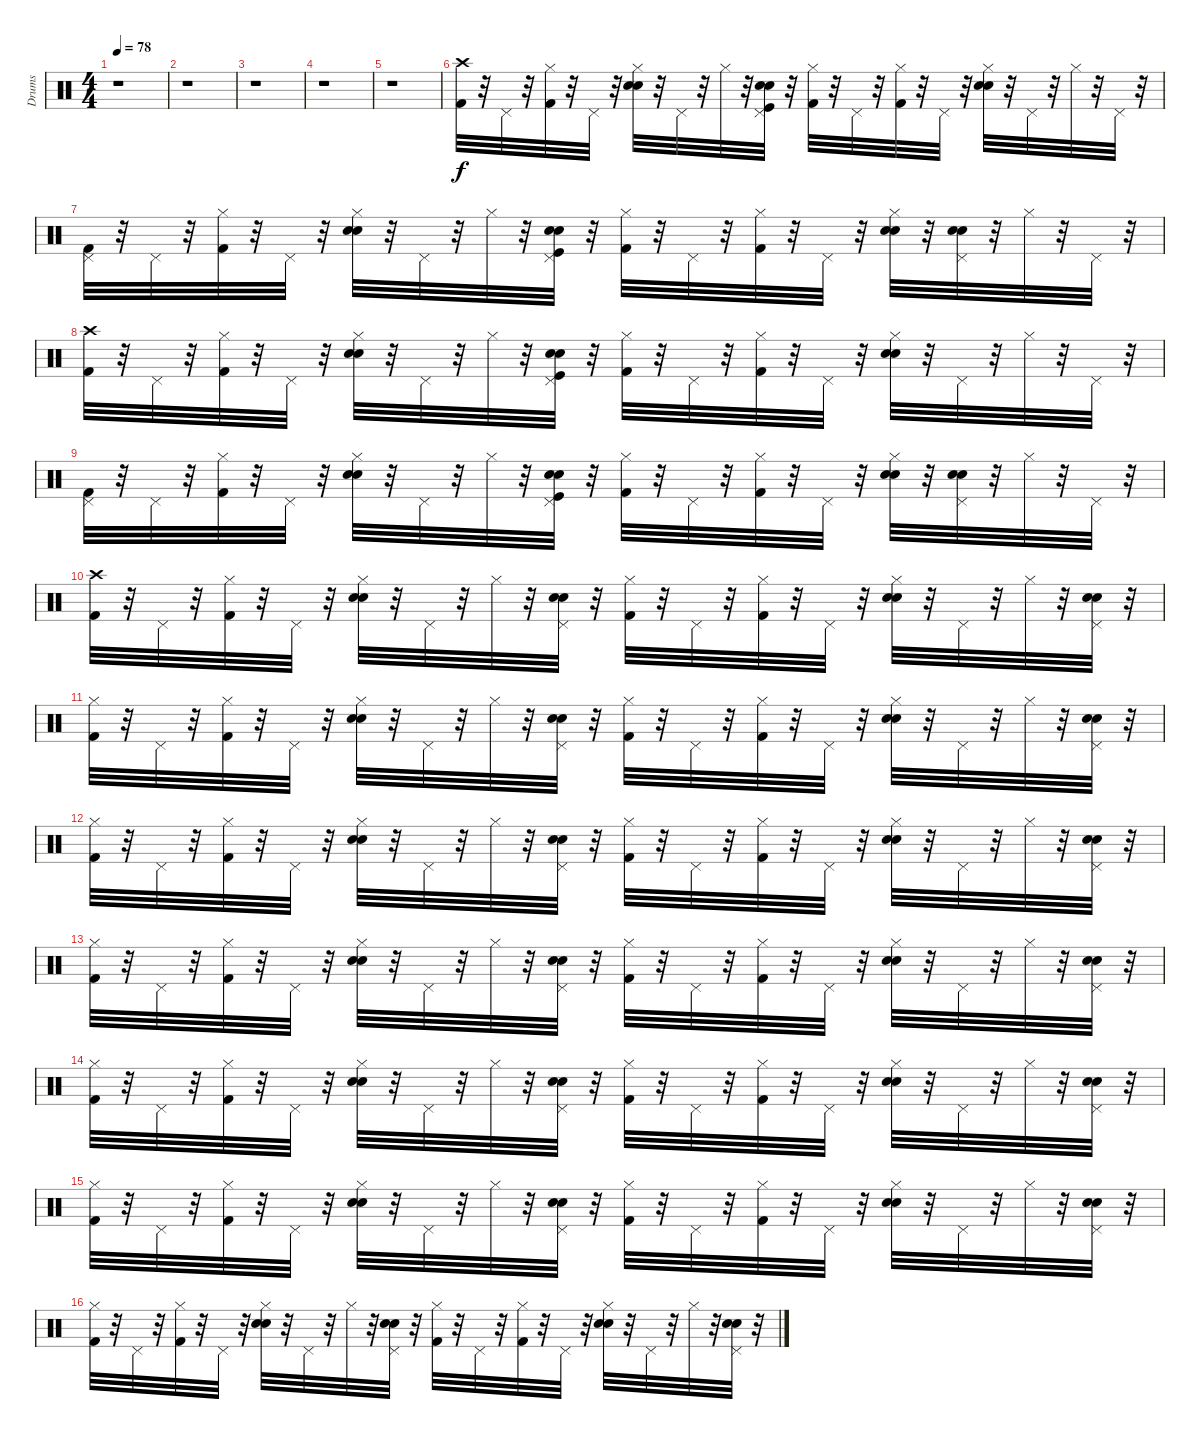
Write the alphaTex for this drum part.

\track ("Drums" "Drums") {instrument percussion}
\staff {score}
\articulation defaults
\ts (4 4)
\tempo 78
\clef neutral
\ks c
r.1{dy f} |
r.1 |
r.1 |
r.1 |
r.1 |
("Crash high (hit)" "Kick (hit) 2").32 r.32 "Pedal Hi-Hat (hit)".32 r.32 ("Hi-Hat (closed)" "Kick (hit) 2").32 r.32 "Pedal Hi-Hat (hit)".32 r.32 ("Hi-Hat (closed)" "Hand Clap (hit)" "Snare (hit) 2").32 r.32 "Pedal Hi-Hat (hit)".32 r.32 "Hi-Hat (closed)".32 r.32 ("Hand Clap (hit)" "Snare (hit) 2" "Pedal Hi-Hat (hit)" "Kick (hit)").32 r.32 ("Hi-Hat (closed)" "Kick (hit) 2").32 r.32 "Pedal Hi-Hat (hit)".32 r.32 ("Hi-Hat (closed)" "Kick (hit) 2").32 r.32 "Pedal Hi-Hat (hit)".32 r.32 ("Hi-Hat (closed)" "Hand Clap (hit)" "Snare (hit) 2").32 r.32 "Pedal Hi-Hat (hit)".32 r.32 "Hi-Hat (closed)".32 r.32 "Pedal Hi-Hat (hit)".32 r.32 |
("Pedal Hi-Hat (hit)" "Kick (hit) 2").32 r.32 "Pedal Hi-Hat (hit)".32 r.32 ("Hi-Hat (closed)" "Kick (hit) 2").32 r.32 "Pedal Hi-Hat (hit)".32 r.32 ("Hi-Hat (closed)" "Hand Clap (hit)" "Snare (hit) 2").32 r.32 "Pedal Hi-Hat (hit)".32 r.32 "Hi-Hat (closed)".32 r.32 ("Hand Clap (hit)" "Snare (hit) 2" "Pedal Hi-Hat (hit)" "Kick (hit)").32 r.32 ("Hi-Hat (closed)" "Kick (hit) 2").32 r.32 "Pedal Hi-Hat (hit)".32 r.32 ("Hi-Hat (closed)" "Kick (hit) 2").32 r.32 "Pedal Hi-Hat (hit)".32 r.32 ("Hi-Hat (closed)" "Hand Clap (hit)" "Snare (hit) 2").32 r.32 ("Hand Clap (hit)" "Snare (hit) 2" "Pedal Hi-Hat (hit)").32 r.32 "Hi-Hat (closed)".32 r.32 "Pedal Hi-Hat (hit)".32 r.32 |
("Crash high (hit)" "Kick (hit) 2").32 r.32 "Pedal Hi-Hat (hit)".32 r.32 ("Hi-Hat (closed)" "Kick (hit) 2").32 r.32 "Pedal Hi-Hat (hit)".32 r.32 ("Hi-Hat (closed)" "Hand Clap (hit)" "Snare (hit) 2").32 r.32 "Pedal Hi-Hat (hit)".32 r.32 "Hi-Hat (closed)".32 r.32 ("Hand Clap (hit)" "Snare (hit) 2" "Pedal Hi-Hat (hit)" "Kick (hit)").32 r.32 ("Hi-Hat (closed)" "Kick (hit) 2").32 r.32 "Pedal Hi-Hat (hit)".32 r.32 ("Hi-Hat (closed)" "Kick (hit) 2").32 r.32 "Pedal Hi-Hat (hit)".32 r.32 ("Hi-Hat (closed)" "Hand Clap (hit)" "Snare (hit) 2").32 r.32 "Pedal Hi-Hat (hit)".32 r.32 "Hi-Hat (closed)".32 r.32 "Pedal Hi-Hat (hit)".32 r.32 |
("Pedal Hi-Hat (hit)" "Kick (hit) 2").32 r.32 "Pedal Hi-Hat (hit)".32 r.32 ("Hi-Hat (closed)" "Kick (hit) 2").32 r.32 "Pedal Hi-Hat (hit)".32 r.32 ("Hi-Hat (closed)" "Hand Clap (hit)" "Snare (hit) 2").32 r.32 "Pedal Hi-Hat (hit)".32 r.32 "Hi-Hat (closed)".32 r.32 ("Hand Clap (hit)" "Snare (hit) 2" "Pedal Hi-Hat (hit)" "Kick (hit)").32 r.32 ("Hi-Hat (closed)" "Kick (hit) 2").32 r.32 "Pedal Hi-Hat (hit)".32 r.32 ("Hi-Hat (closed)" "Kick (hit) 2").32 r.32 "Pedal Hi-Hat (hit)".32 r.32 ("Hi-Hat (closed)" "Hand Clap (hit)" "Snare (hit) 2").32 r.32 ("Hand Clap (hit)" "Snare (hit) 2" "Pedal Hi-Hat (hit)").32 r.32 "Hi-Hat (closed)".32 r.32 "Pedal Hi-Hat (hit)".32 r.32 |
("Kick (hit) 2" "Crash high (hit)").32 r.32 "Pedal Hi-Hat (hit)".32 r.32 ("Kick (hit) 2" "Hi-Hat (closed)").32 r.32 "Pedal Hi-Hat (hit)".32 r.32 ("Snare (hit) 2" "Snare (hit) 2" "Hi-Hat (closed)").32 r.32 "Pedal Hi-Hat (hit)".32 r.32 "Hi-Hat (closed)".32 r.32 ("Snare (hit) 2" "Snare (hit) 2" "Pedal Hi-Hat (hit)").32 r.32 ("Kick (hit) 2" "Hi-Hat (closed)").32 r.32 "Pedal Hi-Hat (hit)".32 r.32 ("Kick (hit) 2" "Hi-Hat (closed)").32 r.32 "Pedal Hi-Hat (hit)".32 r.32 ("Snare (hit) 2" "Snare (hit) 2" "Hi-Hat (closed)").32 r.32 "Pedal Hi-Hat (hit)".32 r.32 "Hi-Hat (closed)".32 r.32 ("Pedal Hi-Hat (hit)" "Snare (hit) 2" "Snare (hit) 2").32 r.32 |
("Hi-Hat (closed)" "Kick (hit) 2").32 r.32 "Pedal Hi-Hat (hit)".32 r.32 ("Kick (hit) 2" "Hi-Hat (closed)").32 r.32 "Pedal Hi-Hat (hit)".32 r.32 ("Snare (hit) 2" "Snare (hit) 2" "Hi-Hat (closed)").32 r.32 "Pedal Hi-Hat (hit)".32 r.32 "Hi-Hat (closed)".32 r.32 ("Snare (hit) 2" "Snare (hit) 2" "Pedal Hi-Hat (hit)").32 r.32 ("Kick (hit) 2" "Hi-Hat (closed)").32 r.32 "Pedal Hi-Hat (hit)".32 r.32 ("Kick (hit) 2" "Hi-Hat (closed)").32 r.32 "Pedal Hi-Hat (hit)".32 r.32 ("Snare (hit) 2" "Snare (hit) 2" "Hi-Hat (closed)").32 r.32 "Pedal Hi-Hat (hit)".32 r.32 "Hi-Hat (closed)".32 r.32 ("Pedal Hi-Hat (hit)" "Snare (hit) 2" "Snare (hit) 2").32 r.32 |
("Hi-Hat (closed)" "Kick (hit) 2").32 r.32 "Pedal Hi-Hat (hit)".32 r.32 ("Kick (hit) 2" "Hi-Hat (closed)").32 r.32 "Pedal Hi-Hat (hit)".32 r.32 ("Snare (hit) 2" "Snare (hit) 2" "Hi-Hat (closed)").32 r.32 "Pedal Hi-Hat (hit)".32 r.32 "Hi-Hat (closed)".32 r.32 ("Snare (hit) 2" "Snare (hit) 2" "Pedal Hi-Hat (hit)").32 r.32 ("Kick (hit) 2" "Hi-Hat (closed)").32 r.32 "Pedal Hi-Hat (hit)".32 r.32 ("Kick (hit) 2" "Hi-Hat (closed)").32 r.32 "Pedal Hi-Hat (hit)".32 r.32 ("Snare (hit) 2" "Snare (hit) 2" "Hi-Hat (closed)").32 r.32 "Pedal Hi-Hat (hit)".32 r.32 "Hi-Hat (closed)".32 r.32 ("Pedal Hi-Hat (hit)" "Snare (hit) 2" "Snare (hit) 2").32 r.32 |
("Hi-Hat (closed)" "Kick (hit) 2").32 r.32 "Pedal Hi-Hat (hit)".32 r.32 ("Kick (hit) 2" "Hi-Hat (closed)").32 r.32 "Pedal Hi-Hat (hit)".32 r.32 ("Snare (hit) 2" "Snare (hit) 2" "Hi-Hat (closed)").32 r.32 "Pedal Hi-Hat (hit)".32 r.32 "Hi-Hat (closed)".32 r.32 ("Snare (hit) 2" "Snare (hit) 2" "Pedal Hi-Hat (hit)").32 r.32 ("Kick (hit) 2" "Hi-Hat (closed)").32 r.32 "Pedal Hi-Hat (hit)".32 r.32 ("Kick (hit) 2" "Hi-Hat (closed)").32 r.32 "Pedal Hi-Hat (hit)".32 r.32 ("Snare (hit) 2" "Snare (hit) 2" "Hi-Hat (closed)").32 r.32 "Pedal Hi-Hat (hit)".32 r.32 "Hi-Hat (closed)".32 r.32 ("Pedal Hi-Hat (hit)" "Snare (hit) 2" "Snare (hit) 2").32 r.32 |
("Hi-Hat (closed)" "Kick (hit) 2").32 r.32 "Pedal Hi-Hat (hit)".32 r.32 ("Kick (hit) 2" "Hi-Hat (closed)").32 r.32 "Pedal Hi-Hat (hit)".32 r.32 ("Snare (hit) 2" "Snare (hit) 2" "Hi-Hat (closed)").32 r.32 "Pedal Hi-Hat (hit)".32 r.32 "Hi-Hat (closed)".32 r.32 ("Snare (hit) 2" "Snare (hit) 2" "Pedal Hi-Hat (hit)").32 r.32 ("Kick (hit) 2" "Hi-Hat (closed)").32 r.32 "Pedal Hi-Hat (hit)".32 r.32 ("Kick (hit) 2" "Hi-Hat (closed)").32 r.32 "Pedal Hi-Hat (hit)".32 r.32 ("Snare (hit) 2" "Snare (hit) 2" "Hi-Hat (closed)").32 r.32 "Pedal Hi-Hat (hit)".32 r.32 "Hi-Hat (closed)".32 r.32 ("Pedal Hi-Hat (hit)" "Snare (hit) 2" "Snare (hit) 2").32 r.32 |
("Hi-Hat (closed)" "Kick (hit) 2").32 r.32 "Pedal Hi-Hat (hit)".32 r.32 ("Kick (hit) 2" "Hi-Hat (closed)").32 r.32 "Pedal Hi-Hat (hit)".32 r.32 ("Snare (hit) 2" "Snare (hit) 2" "Hi-Hat (closed)").32 r.32 "Pedal Hi-Hat (hit)".32 r.32 "Hi-Hat (closed)".32 r.32 ("Snare (hit) 2" "Snare (hit) 2" "Pedal Hi-Hat (hit)").32 r.32 ("Kick (hit) 2" "Hi-Hat (closed)").32 r.32 "Pedal Hi-Hat (hit)".32 r.32 ("Kick (hit) 2" "Hi-Hat (closed)").32 r.32 "Pedal Hi-Hat (hit)".32 r.32 ("Snare (hit) 2" "Snare (hit) 2" "Hi-Hat (closed)").32 r.32 "Pedal Hi-Hat (hit)".32 r.32 "Hi-Hat (closed)".32 r.32 ("Pedal Hi-Hat (hit)" "Snare (hit) 2" "Snare (hit) 2").32 r.32 |
("Hi-Hat (closed)" "Kick (hit) 2").32 r.32 "Pedal Hi-Hat (hit)".32 r.32 ("Kick (hit) 2" "Hi-Hat (closed)").32 r.32 "Pedal Hi-Hat (hit)".32 r.32 ("Snare (hit) 2" "Snare (hit) 2" "Hi-Hat (closed)").32 r.32 "Pedal Hi-Hat (hit)".32 r.32 "Hi-Hat (closed)".32 r.32 ("Snare (hit) 2" "Snare (hit) 2" "Pedal Hi-Hat (hit)").32 r.32 ("Kick (hit) 2" "Hi-Hat (closed)").32 r.32 "Pedal Hi-Hat (hit)".32 r.32 ("Kick (hit) 2" "Hi-Hat (closed)").32 r.32 "Pedal Hi-Hat (hit)".32 r.32 ("Snare (hit) 2" "Snare (hit) 2" "Hi-Hat (closed)").32 r.32 "Pedal Hi-Hat (hit)".32 r.32 "Hi-Hat (closed)".32 r.32 ("Pedal Hi-Hat (hit)" "Snare (hit) 2" "Snare (hit) 2").32 r.32
